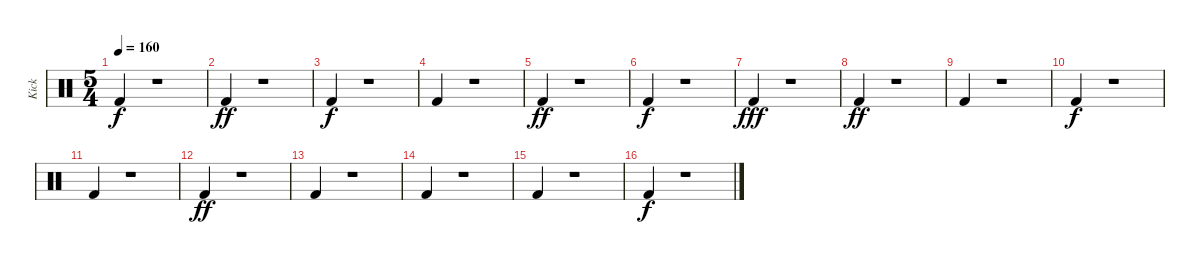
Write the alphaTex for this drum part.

\track ("Kick" "Kick") {instrument percussion}
\staff {score}
\articulation defaults
\ts (5 4)
\tempo 160
\clef neutral
\ks c "Kick (hit) 2".4{dy f}
r.1 |
"Kick (hit) 2".4{dy ff} r.1 |
"Kick (hit) 2".4{dy f} r.1 |
"Kick (hit) 2".4 r.1 |
"Kick (hit) 2".4{dy ff} r.1 |
"Kick (hit) 2".4{dy f} r.1 |
"Kick (hit) 2".4{dy fff} r.1 |
"Kick (hit) 2".4{dy ff} r.1 |
"Kick (hit) 2".4 r.1 |
"Kick (hit) 2".4{dy f} r.1 |
"Kick (hit) 2".4 r.1 |
"Kick (hit) 2".4{dy ff} r.1 |
"Kick (hit) 2".4 r.1 |
"Kick (hit) 2".4 r.1 |
"Kick (hit) 2".4 r.1 |
"Kick (hit) 2".4{dy f} r.1
